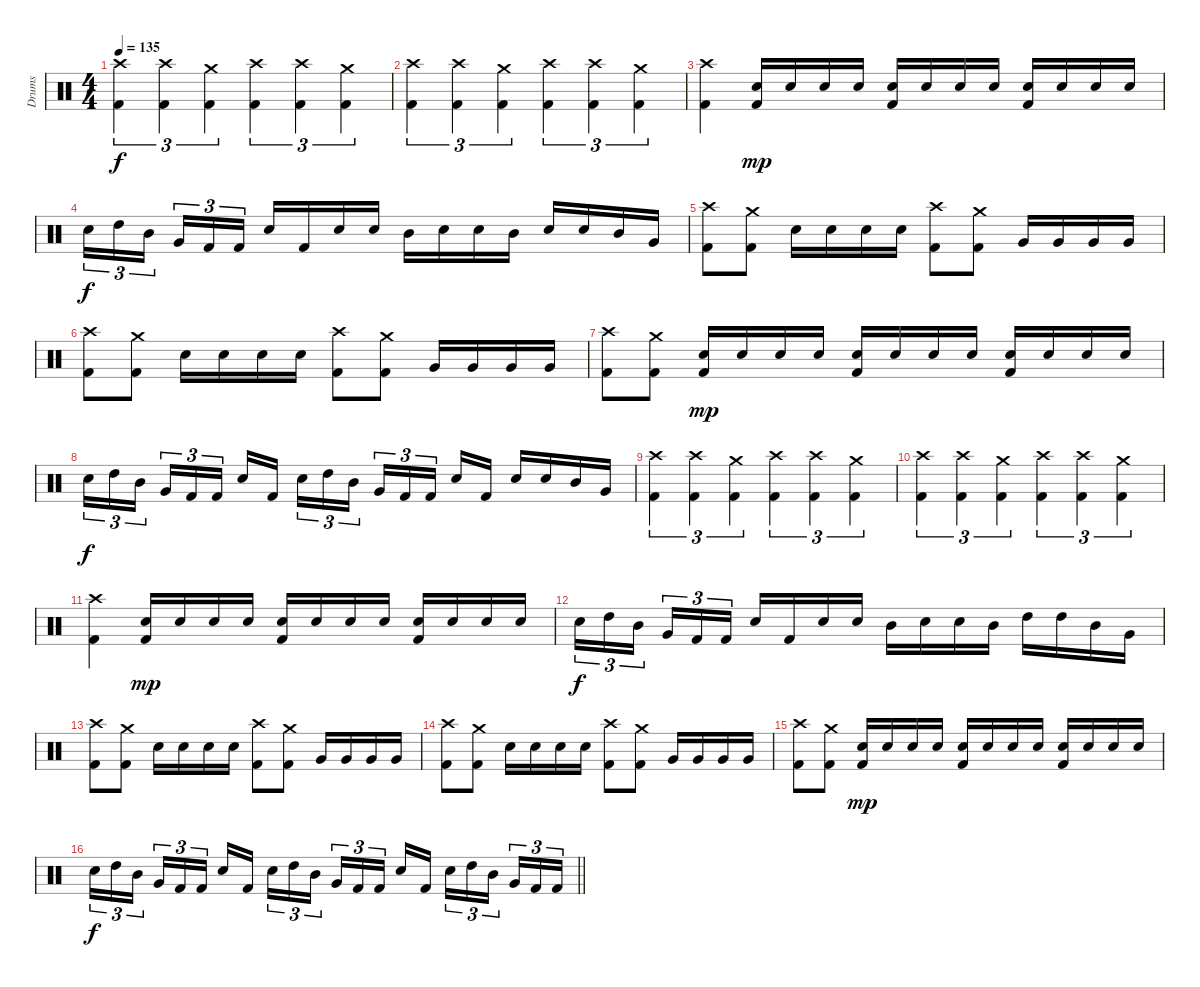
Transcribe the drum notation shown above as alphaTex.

\track ("Drums" "Drums") {instrument percussion}
\staff {score}
\articulation defaults
\ts (4 4)
\tempo 135
\clef neutral
\ks c
("Crash high (hit)" "Kick (hit) 2").4{tu (3 2) dy f} ("Crash high (hit)" "Kick (hit) 2").4{tu (3 2)} ("Crash medium (hit)" "Kick (hit) 2").4{tu (3 2)} ("Crash high (hit)" "Kick (hit) 2").4{tu (3 2)} ("Crash high (hit)" "Kick (hit) 2").4{tu (3 2)} ("Crash medium (hit)" "Kick (hit) 2").4{tu (3 2)} |
("Crash high (hit)" "Kick (hit) 2").4{tu (3 2)} ("Crash high (hit)" "Kick (hit) 2").4{tu (3 2)} ("Crash medium (hit)" "Kick (hit) 2").4{tu (3 2)} ("Crash high (hit)" "Kick (hit) 2").4{tu (3 2)} ("Crash high (hit)" "Kick (hit) 2").4{tu (3 2)} ("Crash medium (hit)" "Kick (hit) 2").4{tu (3 2)} |
("Crash high (hit)" "Kick (hit) 2").4 ("Snare (hit) 2" "Kick (hit) 2").16{dy mp} "Snare (hit) 2".16 "Snare (hit) 2".16 "Snare (hit) 2".16 ("Snare (hit) 2" "Kick (hit) 2").16 "Snare (hit) 2".16 "Snare (hit) 2".16 "Snare (hit) 2".16 ("Snare (hit) 2" "Kick (hit) 2").16 "Snare (hit) 2".16 "Snare (hit) 2".16 "Snare (hit) 2".16 |
"Snare (hit) 2".16{tu (3 2) dy f} "High Tom (hit)".16{tu (3 2)} "Mid Tom (hit)".16{tu (3 2) beam splitsecondary} "Very Low Tom (hit)".16{tu (3 2)} "Kick (hit) 2".16{tu (3 2)} "Kick (hit) 2".16{tu (3 2)} "Snare (hit) 2".16 "Kick (hit) 2".16 "Snare (hit) 2".16 "Snare (hit) 2".16 "Mid Tom (hit)".16 "Snare (hit) 2".16 "Snare (hit) 2".16 "Mid Tom (hit)".16 "Snare (hit) 2".16 "Snare (hit) 2".16 "Mid Tom (hit)".16 "Very Low Tom (hit)".16 |
("Crash high (hit)" "Kick (hit) 2").8 ("Crash medium (hit)" "Kick (hit) 2").8 "Snare (hit) 2".16 "Snare (hit) 2".16 "Snare (hit) 2".16 "Snare (hit) 2".16 ("Crash high (hit)" "Kick (hit) 2").8 ("Crash medium (hit)" "Kick (hit) 2").8 "Very Low Tom (hit)".16 "Very Low Tom (hit)".16 "Very Low Tom (hit)".16 "Very Low Tom (hit)".16 |
("Crash high (hit)" "Kick (hit) 2").8 ("Crash medium (hit)" "Kick (hit) 2").8 "Snare (hit) 2".16 "Snare (hit) 2".16 "Snare (hit) 2".16 "Snare (hit) 2".16 ("Crash high (hit)" "Kick (hit) 2").8 ("Crash medium (hit)" "Kick (hit) 2").8 "Very Low Tom (hit)".16 "Very Low Tom (hit)".16 "Very Low Tom (hit)".16 "Very Low Tom (hit)".16 |
("Crash high (hit)" "Kick (hit) 2").8 ("Crash medium (hit)" "Kick (hit) 2").8 ("Snare (hit) 2" "Kick (hit) 2").16{dy mp} "Snare (hit) 2".16 "Snare (hit) 2".16 "Snare (hit) 2".16 ("Snare (hit) 2" "Kick (hit) 2").16 "Snare (hit) 2".16 "Snare (hit) 2".16 "Snare (hit) 2".16 ("Snare (hit) 2" "Kick (hit) 2").16 "Snare (hit) 2".16 "Snare (hit) 2".16 "Snare (hit) 2".16 |
"Snare (hit) 2".16{tu (3 2) dy f} "High Tom (hit)".16{tu (3 2)} "Mid Tom (hit)".16{tu (3 2) beam splitsecondary} "Very Low Tom (hit)".16{tu (3 2)} "Kick (hit) 2".16{tu (3 2)} "Kick (hit) 2".16{tu (3 2)} "Snare (hit) 2".16 "Kick (hit) 2".16{beam splitsecondary} "Snare (hit) 2".16{tu (3 2)} "High Tom (hit)".16{tu (3 2)} "Mid Tom (hit)".16{tu (3 2)} "Very Low Tom (hit)".16{tu (3 2)} "Kick (hit) 2".16{tu (3 2)} "Kick (hit) 2".16{tu (3 2) beam splitsecondary} "Snare (hit) 2".16 "Kick (hit) 2".16 "Snare (hit) 2".16 "Snare (hit) 2".16 "Mid Tom (hit)".16 "Very Low Tom (hit)".16 |
("Crash high (hit)" "Kick (hit) 2").4{tu (3 2)} ("Crash high (hit)" "Kick (hit) 2").4{tu (3 2)} ("Crash medium (hit)" "Kick (hit) 2").4{tu (3 2)} ("Crash high (hit)" "Kick (hit) 2").4{tu (3 2)} ("Crash high (hit)" "Kick (hit) 2").4{tu (3 2)} ("Crash medium (hit)" "Kick (hit) 2").4{tu (3 2)} |
("Crash high (hit)" "Kick (hit) 2").4{tu (3 2)} ("Crash high (hit)" "Kick (hit) 2").4{tu (3 2)} ("Crash medium (hit)" "Kick (hit) 2").4{tu (3 2)} ("Crash high (hit)" "Kick (hit) 2").4{tu (3 2)} ("Crash high (hit)" "Kick (hit) 2").4{tu (3 2)} ("Crash medium (hit)" "Kick (hit) 2").4{tu (3 2)} |
("Crash high (hit)" "Kick (hit) 2").4 ("Snare (hit) 2" "Kick (hit) 2").16{dy mp} "Snare (hit) 2".16 "Snare (hit) 2".16 "Snare (hit) 2".16 ("Snare (hit) 2" "Kick (hit) 2").16 "Snare (hit) 2".16 "Snare (hit) 2".16 "Snare (hit) 2".16 ("Snare (hit) 2" "Kick (hit) 2").16 "Snare (hit) 2".16 "Snare (hit) 2".16 "Snare (hit) 2".16 |
"Snare (hit) 2".16{tu (3 2) dy f} "High Tom (hit)".16{tu (3 2)} "Mid Tom (hit)".16{tu (3 2) beam splitsecondary} "Very Low Tom (hit)".16{tu (3 2)} "Kick (hit) 2".16{tu (3 2)} "Kick (hit) 2".16{tu (3 2)} "Snare (hit) 2".16 "Kick (hit) 2".16 "Snare (hit) 2".16 "Snare (hit) 2".16 "Mid Tom (hit)".16 "Snare (hit) 2".16 "Snare (hit) 2".16 "Mid Tom (hit)".16 "High Tom (hit)".16 "High Tom (hit)".16 "Mid Tom (hit)".16 "Very Low Tom (hit)".16 |
("Crash high (hit)" "Kick (hit) 2").8 ("Crash medium (hit)" "Kick (hit) 2").8 "Snare (hit) 2".16 "Snare (hit) 2".16 "Snare (hit) 2".16 "Snare (hit) 2".16 ("Crash high (hit)" "Kick (hit) 2").8 ("Crash medium (hit)" "Kick (hit) 2").8 "Very Low Tom (hit)".16 "Very Low Tom (hit)".16 "Very Low Tom (hit)".16 "Very Low Tom (hit)".16 |
("Crash high (hit)" "Kick (hit) 2").8 ("Crash medium (hit)" "Kick (hit) 2").8 "Snare (hit) 2".16 "Snare (hit) 2".16 "Snare (hit) 2".16 "Snare (hit) 2".16 ("Crash high (hit)" "Kick (hit) 2").8 ("Crash medium (hit)" "Kick (hit) 2").8 "Very Low Tom (hit)".16 "Very Low Tom (hit)".16 "Very Low Tom (hit)".16 "Very Low Tom (hit)".16 |
("Crash high (hit)" "Kick (hit) 2").8 ("Crash medium (hit)" "Kick (hit) 2").8 ("Snare (hit) 2" "Kick (hit) 2").16{dy mp} "Snare (hit) 2".16 "Snare (hit) 2".16 "Snare (hit) 2".16 ("Snare (hit) 2" "Kick (hit) 2").16 "Snare (hit) 2".16 "Snare (hit) 2".16 "Snare (hit) 2".16 ("Snare (hit) 2" "Kick (hit) 2").16 "Snare (hit) 2".16 "Snare (hit) 2".16 "Snare (hit) 2".16 |
\barLineRight lightlight "Snare (hit) 2".16{tu (3 2) dy f} "High Tom (hit)".16{tu (3 2)} "Mid Tom (hit)".16{tu (3 2) beam splitsecondary} "Very Low Tom (hit)".16{tu (3 2)} "Kick (hit) 2".16{tu (3 2)} "Kick (hit) 2".16{tu (3 2)} "Snare (hit) 2".16 "Kick (hit) 2".16{beam splitsecondary} "Snare (hit) 2".16{tu (3 2)} "High Tom (hit)".16{tu (3 2)} "Mid Tom (hit)".16{tu (3 2)} "Very Low Tom (hit)".16{tu (3 2)} "Kick (hit) 2".16{tu (3 2)} "Kick (hit) 2".16{tu (3 2) beam splitsecondary} "Snare (hit) 2".16 "Kick (hit) 2".16 "Snare (hit) 2".16{tu (3 2)} "High Tom (hit)".16{tu (3 2)} "Mid Tom (hit)".16{tu (3 2) beam splitsecondary} "Very Low Tom (hit)".16{tu (3 2)} "Kick (hit) 2".16{tu (3 2)} "Kick (hit) 2".16{tu (3 2)}
